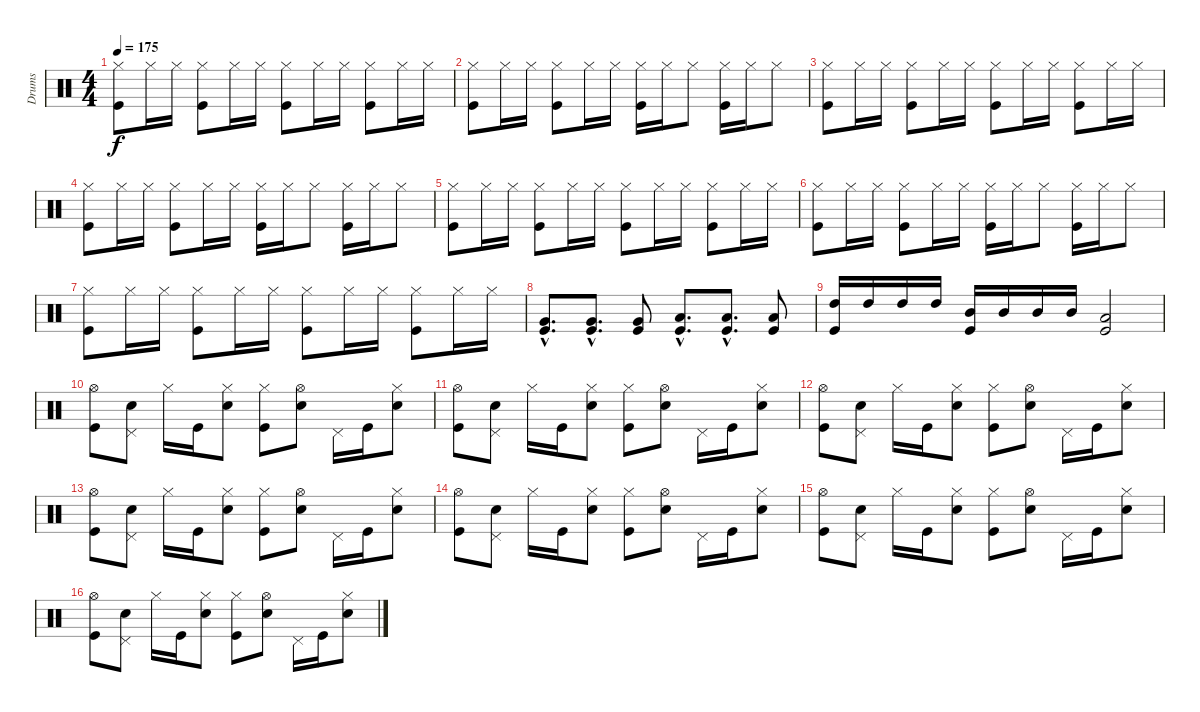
\track ("Drums" "Drums") {instrument percussion}
\staff {score}
\articulation defaults
\ts (4 4)
\tempo 175
\clef neutral
\ks c
("Hi-Hat (closed)" "Kick (hit)").8{dy f} "Hi-Hat (closed)".16 "Hi-Hat (closed)".16 ("Hi-Hat (closed)" "Kick (hit)").8 "Hi-Hat (closed)".16 "Hi-Hat (closed)".16 ("Hi-Hat (closed)" "Kick (hit)").8 "Hi-Hat (closed)".16 "Hi-Hat (closed)".16 ("Hi-Hat (closed)" "Kick (hit)").8 "Hi-Hat (closed)".16 "Hi-Hat (closed)".16 |
("Hi-Hat (closed)" "Kick (hit)").8 "Hi-Hat (closed)".16 "Hi-Hat (closed)".16 ("Hi-Hat (closed)" "Kick (hit)").8 "Hi-Hat (closed)".16 "Hi-Hat (closed)".16 ("Hi-Hat (closed)" "Kick (hit)").16 "Hi-Hat (closed)".16 "Hi-Hat (closed)".8 ("Hi-Hat (closed)" "Kick (hit)").16 "Hi-Hat (closed)".16 "Hi-Hat (closed)".8 |
("Hi-Hat (closed)" "Kick (hit)").8 "Hi-Hat (closed)".16 "Hi-Hat (closed)".16 ("Hi-Hat (closed)" "Kick (hit)").8 "Hi-Hat (closed)".16 "Hi-Hat (closed)".16 ("Hi-Hat (closed)" "Kick (hit)").8 "Hi-Hat (closed)".16 "Hi-Hat (closed)".16 ("Hi-Hat (closed)" "Kick (hit)").8 "Hi-Hat (closed)".16 "Hi-Hat (closed)".16 |
("Hi-Hat (closed)" "Kick (hit)").8 "Hi-Hat (closed)".16 "Hi-Hat (closed)".16 ("Hi-Hat (closed)" "Kick (hit)").8 "Hi-Hat (closed)".16 "Hi-Hat (closed)".16 ("Hi-Hat (closed)" "Kick (hit)").16 "Hi-Hat (closed)".16 "Hi-Hat (closed)".8 ("Hi-Hat (closed)" "Kick (hit)").16 "Hi-Hat (closed)".16 "Hi-Hat (closed)".8 |
("Hi-Hat (closed)" "Kick (hit)").8 "Hi-Hat (closed)".16 "Hi-Hat (closed)".16 ("Hi-Hat (closed)" "Kick (hit)").8 "Hi-Hat (closed)".16 "Hi-Hat (closed)".16 ("Hi-Hat (closed)" "Kick (hit)").8 "Hi-Hat (closed)".16 "Hi-Hat (closed)".16 ("Hi-Hat (closed)" "Kick (hit)").8 "Hi-Hat (closed)".16 "Hi-Hat (closed)".16 |
("Hi-Hat (closed)" "Kick (hit)").8 "Hi-Hat (closed)".16 "Hi-Hat (closed)".16 ("Hi-Hat (closed)" "Kick (hit)").8 "Hi-Hat (closed)".16 "Hi-Hat (closed)".16 ("Hi-Hat (closed)" "Kick (hit)").16 "Hi-Hat (closed)".16 "Hi-Hat (closed)".8 ("Hi-Hat (closed)" "Kick (hit)").16 "Hi-Hat (closed)".16 "Hi-Hat (closed)".8 |
("Hi-Hat (closed)" "Kick (hit)").8 "Hi-Hat (closed)".16 "Hi-Hat (closed)".16 ("Hi-Hat (closed)" "Kick (hit)").8 "Hi-Hat (closed)".16 "Hi-Hat (closed)".16 ("Hi-Hat (closed)" "Kick (hit)").8 "Hi-Hat (closed)".16 "Hi-Hat (closed)".16 ("Hi-Hat (closed)" "Kick (hit)").8 "Hi-Hat (closed)".16 "Hi-Hat (closed)".16 |
("Very Low Tom (hit)"{hac} "Kick (hit)"{hac}).8{d} ("Very Low Tom (hit)"{hac} "Kick (hit)"{hac}).8{d} ("Very Low Tom (hit)" "Kick (hit)").8 ("Low Floor Tom (hit)"{hac} "Kick (hit)"{hac}).8{d} ("Low Floor Tom (hit)"{hac} "Kick (hit)"{hac}).8{d} ("Low Floor Tom (hit)" "Kick (hit)").8 |
("High Tom (hit)" "Kick (hit)").16 "High Tom (hit)".16 "High Tom (hit)".16 "High Tom (hit)".16 ("Mid Tom (hit)" "Kick (hit)").16 "Mid Tom (hit)".16 "Mid Tom (hit)".16 "Mid Tom (hit)".16 ("Low Tom (hit)" "Kick (hit)").2 |
("Hi-Hat (open)" "Kick (hit)").8 ("Pedal Hi-Hat (hit)" "Electric Snare (hit)").8 "Hi-Hat (closed)".16 "Kick (hit)".16 ("Hi-Hat (closed)" "Electric Snare (hit)").8 ("Hi-Hat (closed)" "Kick (hit)").8 ("Hi-Hat (open)" "Electric Snare (hit)").8 "Pedal Hi-Hat (hit)".16 "Kick (hit)".16 ("Hi-Hat (closed)" "Electric Snare (hit)").8 |
("Hi-Hat (open)" "Kick (hit)").8 ("Pedal Hi-Hat (hit)" "Electric Snare (hit)").8 "Hi-Hat (closed)".16 "Kick (hit)".16 ("Hi-Hat (closed)" "Electric Snare (hit)").8 ("Hi-Hat (closed)" "Kick (hit)").8 ("Hi-Hat (open)" "Electric Snare (hit)").8 "Pedal Hi-Hat (hit)".16 "Kick (hit)".16 ("Hi-Hat (closed)" "Electric Snare (hit)").8 |
("Hi-Hat (open)" "Kick (hit)").8 ("Pedal Hi-Hat (hit)" "Electric Snare (hit)").8 "Hi-Hat (closed)".16 "Kick (hit)".16 ("Hi-Hat (closed)" "Electric Snare (hit)").8 ("Hi-Hat (closed)" "Kick (hit)").8 ("Hi-Hat (open)" "Electric Snare (hit)").8 "Pedal Hi-Hat (hit)".16 "Kick (hit)".16 ("Hi-Hat (closed)" "Electric Snare (hit)").8 |
("Hi-Hat (open)" "Kick (hit)").8 ("Pedal Hi-Hat (hit)" "Electric Snare (hit)").8 "Hi-Hat (closed)".16 "Kick (hit)".16 ("Hi-Hat (closed)" "Electric Snare (hit)").8 ("Hi-Hat (closed)" "Kick (hit)").8 ("Hi-Hat (open)" "Electric Snare (hit)").8 "Pedal Hi-Hat (hit)".16 "Kick (hit)".16 ("Hi-Hat (closed)" "Electric Snare (hit)").8 |
("Hi-Hat (open)" "Kick (hit)").8 ("Pedal Hi-Hat (hit)" "Electric Snare (hit)").8 "Hi-Hat (closed)".16 "Kick (hit)".16 ("Hi-Hat (closed)" "Electric Snare (hit)").8 ("Hi-Hat (closed)" "Kick (hit)").8 ("Hi-Hat (open)" "Electric Snare (hit)").8 "Pedal Hi-Hat (hit)".16 "Kick (hit)".16 ("Hi-Hat (closed)" "Electric Snare (hit)").8 |
("Hi-Hat (open)" "Kick (hit)").8 ("Pedal Hi-Hat (hit)" "Electric Snare (hit)").8 "Hi-Hat (closed)".16 "Kick (hit)".16 ("Hi-Hat (closed)" "Electric Snare (hit)").8 ("Hi-Hat (closed)" "Kick (hit)").8 ("Hi-Hat (open)" "Electric Snare (hit)").8 "Pedal Hi-Hat (hit)".16 "Kick (hit)".16 ("Hi-Hat (closed)" "Electric Snare (hit)").8 |
("Hi-Hat (open)" "Kick (hit)").8 ("Pedal Hi-Hat (hit)" "Electric Snare (hit)").8 "Hi-Hat (closed)".16 "Kick (hit)".16 ("Hi-Hat (closed)" "Electric Snare (hit)").8 ("Hi-Hat (closed)" "Kick (hit)").8 ("Hi-Hat (open)" "Electric Snare (hit)").8 "Pedal Hi-Hat (hit)".16 "Kick (hit)".16 ("Hi-Hat (closed)" "Electric Snare (hit)").8
